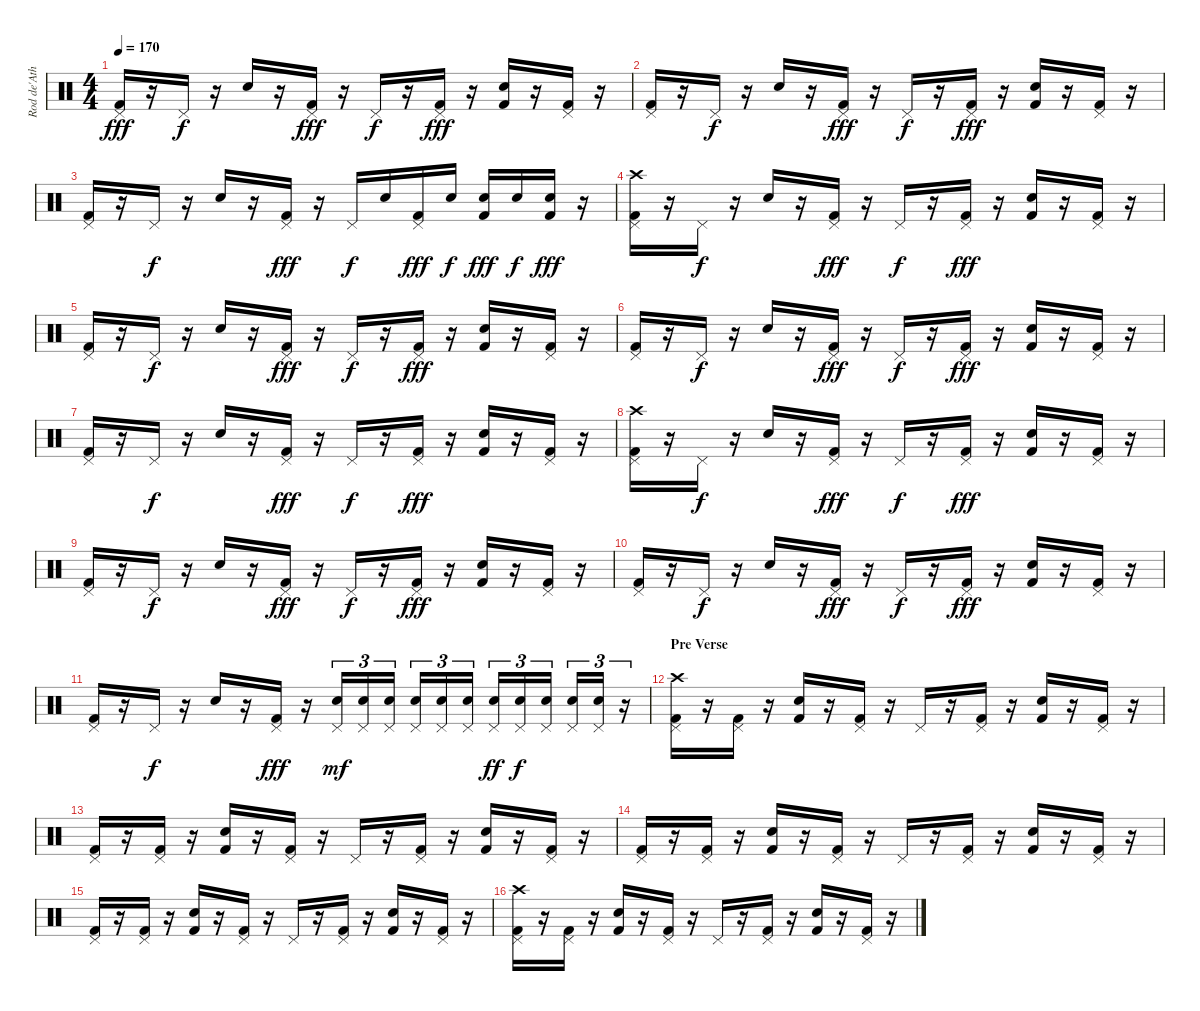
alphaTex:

\track ("Rod de'Ath" "Rod de'Ath") {instrument percussion}
\staff {score}
\articulation defaults
\ts (4 4)
\tempo 170
\clef neutral
\ks c
("Pedal Hi-Hat (hit)" "Kick (hit) 2").16{dy fff} r.16 "Pedal Hi-Hat (hit)".16{dy f} r.16 "Snare (hit) 2".16 r.16 ("Pedal Hi-Hat (hit)" "Kick (hit) 2").16{dy fff} r.16 "Pedal Hi-Hat (hit)".16{dy f} r.16 ("Pedal Hi-Hat (hit)" "Kick (hit) 2").16{dy fff} r.16 ("Electric Snare (hit)" "Kick (hit) 2").16 r.16 ("Pedal Hi-Hat (hit)" "Kick (hit) 2").16 r.16 |
("Pedal Hi-Hat (hit)" "Kick (hit) 2").16 r.16 "Pedal Hi-Hat (hit)".16{dy f} r.16 "Snare (hit) 2".16 r.16 ("Pedal Hi-Hat (hit)" "Kick (hit) 2").16{dy fff} r.16 "Pedal Hi-Hat (hit)".16{dy f} r.16 ("Pedal Hi-Hat (hit)" "Kick (hit) 2").16{dy fff} r.16 ("Electric Snare (hit)" "Kick (hit) 2").16 r.16 ("Pedal Hi-Hat (hit)" "Kick (hit) 2").16 r.16 |
("Pedal Hi-Hat (hit)" "Kick (hit) 2").16 r.16 "Pedal Hi-Hat (hit)".16{dy f} r.16 "Snare (hit) 2".16 r.16 ("Pedal Hi-Hat (hit)" "Kick (hit) 2").16{dy fff} r.16 "Pedal Hi-Hat (hit)".16{dy f} "Electric Snare (hit)".16 ("Pedal Hi-Hat (hit)" "Kick (hit) 2").16{dy fff} "Electric Snare (hit)".16{dy f} ("Electric Snare (hit)" "Kick (hit) 2").16{dy fff} "Electric Snare (hit)".16{dy f} ("Electric Snare (hit)" "Kick (hit) 2").16{dy fff} r.16 |
("Crash high (hit)" "Pedal Hi-Hat (hit)" "Kick (hit) 2").16 r.16 "Pedal Hi-Hat (hit)".16{dy f} r.16 "Snare (hit) 2".16 r.16 ("Pedal Hi-Hat (hit)" "Kick (hit) 2").16{dy fff} r.16 "Pedal Hi-Hat (hit)".16{dy f} r.16 ("Pedal Hi-Hat (hit)" "Kick (hit) 2").16{dy fff} r.16 ("Electric Snare (hit)" "Kick (hit) 2").16 r.16 ("Pedal Hi-Hat (hit)" "Kick (hit) 2").16 r.16 |
("Pedal Hi-Hat (hit)" "Kick (hit) 2").16 r.16 "Pedal Hi-Hat (hit)".16{dy f} r.16 "Snare (hit) 2".16 r.16 ("Pedal Hi-Hat (hit)" "Kick (hit) 2").16{dy fff} r.16 "Pedal Hi-Hat (hit)".16{dy f} r.16 ("Pedal Hi-Hat (hit)" "Kick (hit) 2").16{dy fff} r.16 ("Electric Snare (hit)" "Kick (hit) 2").16 r.16 ("Pedal Hi-Hat (hit)" "Kick (hit) 2").16 r.16 |
("Pedal Hi-Hat (hit)" "Kick (hit) 2").16 r.16 "Pedal Hi-Hat (hit)".16{dy f} r.16 "Snare (hit) 2".16 r.16 ("Pedal Hi-Hat (hit)" "Kick (hit) 2").16{dy fff} r.16 "Pedal Hi-Hat (hit)".16{dy f} r.16 ("Pedal Hi-Hat (hit)" "Kick (hit) 2").16{dy fff} r.16 ("Electric Snare (hit)" "Kick (hit) 2").16 r.16 ("Pedal Hi-Hat (hit)" "Kick (hit) 2").16 r.16 |
("Pedal Hi-Hat (hit)" "Kick (hit) 2").16 r.16 "Pedal Hi-Hat (hit)".16{dy f} r.16 "Snare (hit) 2".16 r.16 ("Pedal Hi-Hat (hit)" "Kick (hit) 2").16{dy fff} r.16 "Pedal Hi-Hat (hit)".16{dy f} r.16 ("Pedal Hi-Hat (hit)" "Kick (hit) 2").16{dy fff} r.16 ("Electric Snare (hit)" "Kick (hit) 2").16 r.16 ("Pedal Hi-Hat (hit)" "Kick (hit) 2").16 r.16 |
("Crash high (hit)" "Pedal Hi-Hat (hit)" "Kick (hit) 2").16 r.16 "Pedal Hi-Hat (hit)".16{dy f} r.16 "Snare (hit) 2".16 r.16 ("Pedal Hi-Hat (hit)" "Kick (hit) 2").16{dy fff} r.16 "Pedal Hi-Hat (hit)".16{dy f} r.16 ("Pedal Hi-Hat (hit)" "Kick (hit) 2").16{dy fff} r.16 ("Electric Snare (hit)" "Kick (hit) 2").16 r.16 ("Pedal Hi-Hat (hit)" "Kick (hit) 2").16 r.16 |
("Pedal Hi-Hat (hit)" "Kick (hit) 2").16 r.16 "Pedal Hi-Hat (hit)".16{dy f} r.16 "Snare (hit) 2".16 r.16 ("Pedal Hi-Hat (hit)" "Kick (hit) 2").16{dy fff} r.16 "Pedal Hi-Hat (hit)".16{dy f} r.16 ("Pedal Hi-Hat (hit)" "Kick (hit) 2").16{dy fff} r.16 ("Electric Snare (hit)" "Kick (hit) 2").16 r.16 ("Pedal Hi-Hat (hit)" "Kick (hit) 2").16 r.16 |
("Pedal Hi-Hat (hit)" "Kick (hit) 2").16 r.16 "Pedal Hi-Hat (hit)".16{dy f} r.16 "Snare (hit) 2".16 r.16 ("Pedal Hi-Hat (hit)" "Kick (hit) 2").16{dy fff} r.16 "Pedal Hi-Hat (hit)".16{dy f} r.16 ("Pedal Hi-Hat (hit)" "Kick (hit) 2").16{dy fff} r.16 ("Electric Snare (hit)" "Kick (hit) 2").16 r.16 ("Pedal Hi-Hat (hit)" "Kick (hit) 2").16 r.16 |
("Pedal Hi-Hat (hit)" "Kick (hit) 2").16 r.16 "Pedal Hi-Hat (hit)".16{dy f} r.16 "Snare (hit) 2".16 r.16 ("Pedal Hi-Hat (hit)" "Kick (hit) 2").16{dy fff} r.16 ("Snare (hit) 2" "Pedal Hi-Hat (hit)").16{tu (3 2) dy mf} ("Snare (hit) 2" "Pedal Hi-Hat (hit)").16{tu (3 2)} ("Snare (hit) 2" "Pedal Hi-Hat (hit)").16{tu (3 2)} ("Snare (hit) 2" "Pedal Hi-Hat (hit)").16{tu (3 2)} ("Snare (hit) 2" "Pedal Hi-Hat (hit)").16{tu (3 2)} ("Snare (hit) 2" "Pedal Hi-Hat (hit)").16{tu (3 2)} ("Snare (hit) 2" "Pedal Hi-Hat (hit)").16{tu (3 2) dy ff} ("Snare (hit) 2" "Pedal Hi-Hat (hit)").16{tu (3 2) dy f} ("Snare (hit) 2" "Pedal Hi-Hat (hit)").16{tu (3 2)} ("Snare (hit) 2" "Pedal Hi-Hat (hit)").16{tu (3 2)} ("Snare (hit) 2" "Pedal Hi-Hat (hit)").16{tu (3 2)} r.16{tu (3 2)} |
\section ("" "Pre Verse")
("Crash high (hit)" "Pedal Hi-Hat (hit)" "Kick (hit) 2").16 r.16 ("Pedal Hi-Hat (hit)" "Kick (hit) 2").16 r.16 ("Electric Snare (hit)" "Kick (hit) 2").16 r.16 ("Pedal Hi-Hat (hit)" "Kick (hit) 2").16 r.16 "Pedal Hi-Hat (hit)".16 r.16 ("Pedal Hi-Hat (hit)" "Kick (hit) 2").16 r.16 ("Electric Snare (hit)" "Kick (hit) 2").16 r.16 ("Pedal Hi-Hat (hit)" "Kick (hit) 2").16 r.16 |
("Pedal Hi-Hat (hit)" "Kick (hit) 2").16 r.16 ("Pedal Hi-Hat (hit)" "Kick (hit) 2").16 r.16 ("Snare (hit) 2" "Kick (hit) 2").16 r.16 ("Pedal Hi-Hat (hit)" "Kick (hit) 2").16 r.16 "Pedal Hi-Hat (hit)".16 r.16 ("Pedal Hi-Hat (hit)" "Kick (hit) 2").16 r.16 ("Electric Snare (hit)" "Kick (hit) 2").16 r.16 ("Pedal Hi-Hat (hit)" "Kick (hit) 2").16 r.16 |
("Pedal Hi-Hat (hit)" "Kick (hit) 2").16 r.16 ("Pedal Hi-Hat (hit)" "Kick (hit) 2").16 r.16 ("Snare (hit) 2" "Kick (hit) 2").16 r.16 ("Pedal Hi-Hat (hit)" "Kick (hit) 2").16 r.16 "Pedal Hi-Hat (hit)".16 r.16 ("Pedal Hi-Hat (hit)" "Kick (hit) 2").16 r.16 ("Electric Snare (hit)" "Kick (hit) 2").16 r.16 ("Pedal Hi-Hat (hit)" "Kick (hit) 2").16 r.16 |
("Pedal Hi-Hat (hit)" "Kick (hit) 2").16 r.16 ("Pedal Hi-Hat (hit)" "Kick (hit) 2").16 r.16 ("Snare (hit) 2" "Kick (hit) 2").16 r.16 ("Pedal Hi-Hat (hit)" "Kick (hit) 2").16 r.16 "Pedal Hi-Hat (hit)".16 r.16 ("Pedal Hi-Hat (hit)" "Kick (hit) 2").16 r.16 ("Electric Snare (hit)" "Kick (hit) 2").16 r.16 ("Pedal Hi-Hat (hit)" "Kick (hit) 2").16 r.16 |
("Crash high (hit)" "Pedal Hi-Hat (hit)" "Kick (hit) 2").16 r.16 ("Pedal Hi-Hat (hit)" "Kick (hit) 2").16 r.16 ("Snare (hit) 2" "Kick (hit) 2").16 r.16 ("Pedal Hi-Hat (hit)" "Kick (hit) 2").16 r.16 "Pedal Hi-Hat (hit)".16 r.16 ("Pedal Hi-Hat (hit)" "Kick (hit) 2").16 r.16 ("Electric Snare (hit)" "Kick (hit) 2").16 r.16 ("Pedal Hi-Hat (hit)" "Kick (hit) 2").16 r.16
